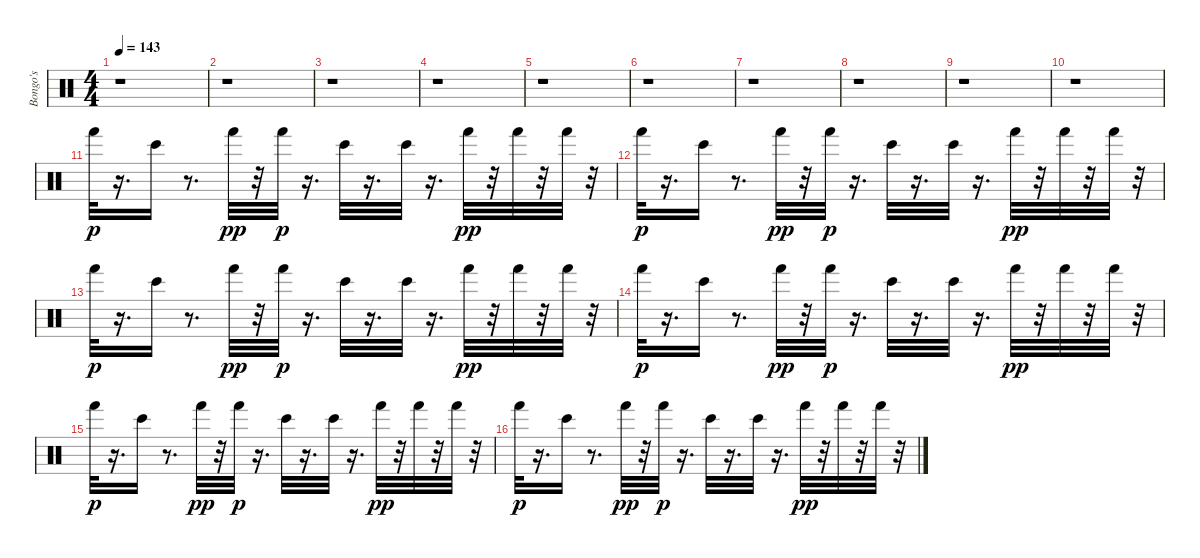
\track ("Bongo's  " "Bongo's  ") {instrument percussion}
\staff {score}
\articulation defaults
\ts (4 4)
\tempo 143
\clef neutral
\ks c
r.1{dy pp} |
r.1 |
r.1 |
r.1 |
r.1 |
r.1 |
r.1 |
r.1 |
r.1 |
r.1 |
"Hand (hit)".32{dy p} r.16{d} "Bongo High (hit)".16 r.8{d} "Hand (hit)".32{dy pp} r.32 "Hand (hit)".32{dy p} r.16{d} "Bongo High (hit)".32 r.16{d} "Bongo High (hit)".32 r.16{d} "Hand (hit)".32{dy pp} r.32 "Hand (hit)".32 r.32 "Hand (hit)".32 r.32 |
"Hand (hit)".32{dy p} r.16{d} "Bongo High (hit)".16 r.8{d} "Hand (hit)".32{dy pp} r.32 "Hand (hit)".32{dy p} r.16{d} "Bongo High (hit)".32 r.16{d} "Bongo High (hit)".32 r.16{d} "Hand (hit)".32{dy pp} r.32 "Hand (hit)".32 r.32 "Hand (hit)".32 r.32 |
"Hand (hit)".32{dy p} r.16{d} "Bongo High (hit)".16 r.8{d} "Hand (hit)".32{dy pp} r.32 "Hand (hit)".32{dy p} r.16{d} "Bongo High (hit)".32 r.16{d} "Bongo High (hit)".32 r.16{d} "Hand (hit)".32{dy pp} r.32 "Hand (hit)".32 r.32 "Hand (hit)".32 r.32 |
"Hand (hit)".32{dy p} r.16{d} "Bongo High (hit)".16 r.8{d} "Hand (hit)".32{dy pp} r.32 "Hand (hit)".32{dy p} r.16{d} "Bongo High (hit)".32 r.16{d} "Bongo High (hit)".32 r.16{d} "Hand (hit)".32{dy pp} r.32 "Hand (hit)".32 r.32 "Hand (hit)".32 r.32 |
"Hand (hit)".32{dy p} r.16{d} "Bongo High (hit)".16 r.8{d} "Hand (hit)".32{dy pp} r.32 "Hand (hit)".32{dy p} r.16{d} "Bongo High (hit)".32 r.16{d} "Bongo High (hit)".32 r.16{d} "Hand (hit)".32{dy pp} r.32 "Hand (hit)".32 r.32 "Hand (hit)".32 r.32 |
"Hand (hit)".32{dy p} r.16{d} "Bongo High (hit)".16 r.8{d} "Hand (hit)".32{dy pp} r.32 "Hand (hit)".32{dy p} r.16{d} "Bongo High (hit)".32 r.16{d} "Bongo High (hit)".32 r.16{d} "Hand (hit)".32{dy pp} r.32 "Hand (hit)".32 r.32 "Hand (hit)".32 r.32
